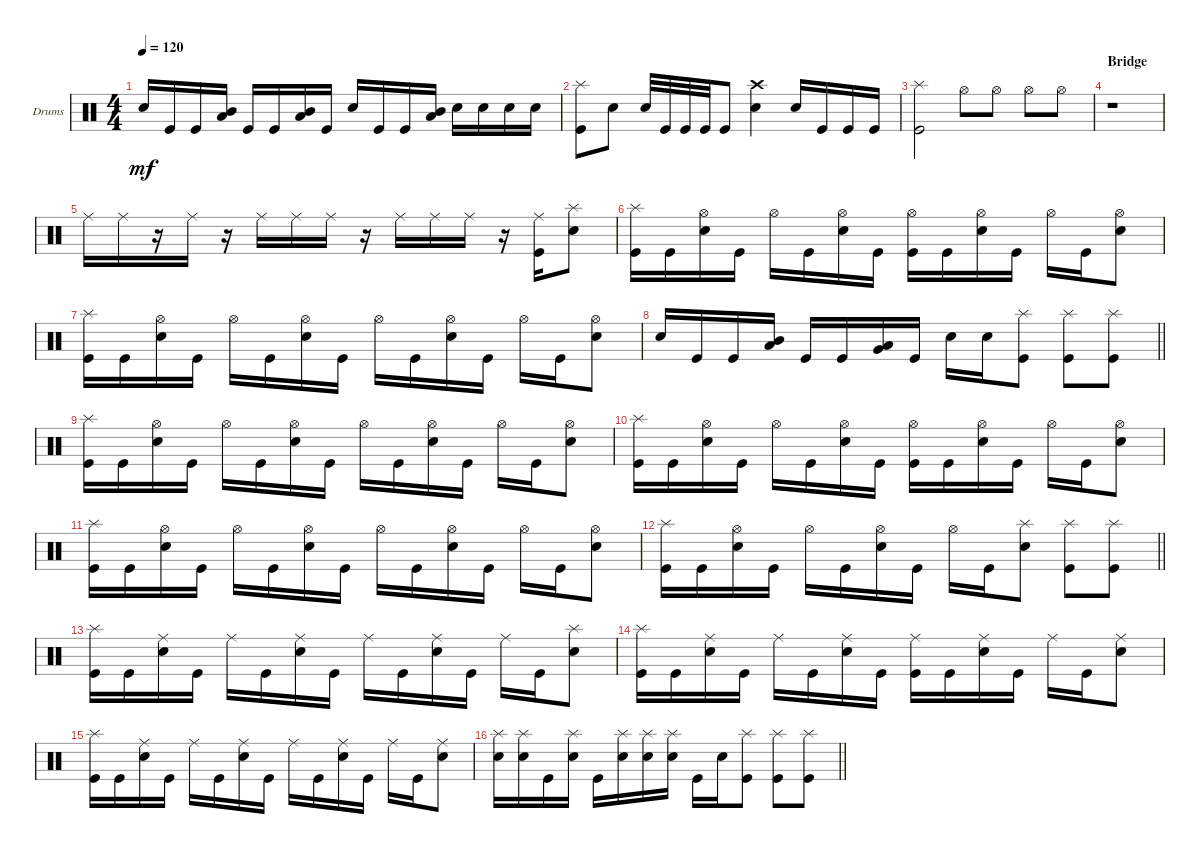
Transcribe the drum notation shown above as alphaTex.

\defaultSystemsLayout 4
\bracketExtendMode groupsimilarinstruments
\firstSystemTrackNameOrientation horizontal
\otherSystemsTrackNameOrientation horizontal
\track ("Drumkit" "Drums") {instrument percussion}
\staff {score}
\articulation defaults
\ts (4 4)
\tempo 120
\clef neutral
\ks c "Snare (hit) 2".16{dy mf} "Kick (hit)".16 "Kick (hit)".16
("Mid Tom (hit)" "Low Tom (hit)").16 "Kick (hit)".16 "Kick (hit)".16 ("Mid Tom (hit)" "Low Tom (hit)").16 "Kick (hit)".16 "Snare (hit) 2".16 "Kick (hit)".16 "Kick (hit)".16 ("Mid Tom (hit)" "Low Tom (hit)").16 "Snare (hit) 2".16 "Snare (hit) 2".16 "Snare (hit) 2".16 "Snare (hit) 2".16 |
("Kick (hit)" "Splash (hit)").8 "Snare (hit) 2".8 "Snare (hit) 2".32 "Kick (hit)".32 "Kick (hit)".32 "Kick (hit)".32 "Kick (hit)".8 ("Snare (hit) 2" "Crash high (hit)").4 "Snare (hit) 2".16 "Kick (hit)".16 "Kick (hit)".16 "Kick (hit)".16 |
("Kick (hit)" "Splash (hit)").2 "Hi-Hat (open)".8 "Hi-Hat (open)".8 "Hi-Hat (open)".8 "Hi-Hat (open)".8 |
\section ("" "Bridge")
r.1 |
"Ride (middle)".16 "Ride (middle)".16 r.16 "Ride (middle)".16 r.16 "Ride (middle)".16 "Ride (middle)".16 "Ride (middle)".16 r.16 "Ride (middle)".16 "Ride (middle)".16 "Ride (middle)".16 r.16 ("Kick (hit)" "Ride (middle)").16 ("Snare (hit) 2" "Splash (hit)").8 |
("Kick (hit)" "Splash (hit)").16 "Kick (hit)".16 ("Snare (hit) 2" "Hi-Hat (open)").16 "Kick (hit)".16 "Hi-Hat (open)".16 "Kick (hit)".16 ("Snare (hit) 2" "Hi-Hat (open)").16 "Kick (hit)".16 ("Kick (hit)" "Hi-Hat (open)").16 "Kick (hit)".16 ("Snare (hit) 2" "Hi-Hat (open)").16 "Kick (hit)".16 "Hi-Hat (open)".16 "Kick (hit)".16 ("Snare (hit) 2" "Hi-Hat (open)").8 |
("Kick (hit)" "Splash (hit)").16 "Kick (hit)".16 ("Snare (hit) 2" "Hi-Hat (open)").16 "Kick (hit)".16 "Hi-Hat (open)".16 "Kick (hit)".16 ("Snare (hit) 2" "Hi-Hat (open)").16 "Kick (hit)".16 "Hi-Hat (open)".16 "Kick (hit)".16 ("Snare (hit) 2" "Hi-Hat (open)").16 "Kick (hit)".16 "Hi-Hat (open)".16 "Kick (hit)".16 ("Snare (hit) 2" "Hi-Hat (open)").8 |
\barLineRight lightlight "Snare (hit) 2".16 "Kick (hit)".16 "Kick (hit)".16
("Mid Tom (hit)" "Low Tom (hit)").16 "Kick (hit)".16 "Kick (hit)".16 ("Low Tom (hit)" "Very Low Tom (hit)").16 "Kick (hit)".16 "Snare (hit) 2".16 "Snare (hit) 2".16 ("Kick (hit)" "Splash (hit)").8 ("Kick (hit)" "Splash (hit)").8 ("Kick (hit)" "Splash (hit)").8 |
("Kick (hit)" "Splash (hit)").16 "Kick (hit)".16 ("Snare (hit) 2" "Hi-Hat (open)").16 "Kick (hit)".16 "Hi-Hat (open)".16 "Kick (hit)".16 ("Snare (hit) 2" "Hi-Hat (open)").16 "Kick (hit)".16 "Hi-Hat (open)".16 "Kick (hit)".16 ("Snare (hit) 2" "Hi-Hat (open)").16 "Kick (hit)".16 "Hi-Hat (open)".16 "Kick (hit)".16 ("Snare (hit) 2" "Hi-Hat (open)").8 |
("Kick (hit)" "Splash (hit)").16 "Kick (hit)".16 ("Snare (hit) 2" "Hi-Hat (open)").16 "Kick (hit)".16 "Hi-Hat (open)".16 "Kick (hit)".16 ("Snare (hit) 2" "Hi-Hat (open)").16 "Kick (hit)".16 ("Kick (hit)" "Hi-Hat (open)").16 "Kick (hit)".16 ("Snare (hit) 2" "Hi-Hat (open)").16 "Kick (hit)".16 "Hi-Hat (open)".16 "Kick (hit)".16 ("Snare (hit) 2" "Hi-Hat (open)").8 |
("Kick (hit)" "Splash (hit)").16 "Kick (hit)".16 ("Snare (hit) 2" "Hi-Hat (open)").16 "Kick (hit)".16 "Hi-Hat (open)".16 "Kick (hit)".16 ("Snare (hit) 2" "Hi-Hat (open)").16 "Kick (hit)".16 "Hi-Hat (open)".16 "Kick (hit)".16 ("Snare (hit) 2" "Hi-Hat (open)").16 "Kick (hit)".16 "Hi-Hat (open)".16 "Kick (hit)".16 ("Snare (hit) 2" "Hi-Hat (open)").8 |
\barLineRight lightlight
("Kick (hit)" "Splash (hit)").16 "Kick (hit)".16 ("Snare (hit) 2" "Hi-Hat (open)").16 "Kick (hit)".16 "Hi-Hat (open)".16 "Kick (hit)".16 ("Snare (hit) 2" "Hi-Hat (open)").16 "Kick (hit)".16 "Hi-Hat (open)".16 "Kick (hit)".16 ("Snare (hit) 2" "Splash (hit)").8 ("Kick (hit)" "Splash (hit)").8 ("Kick (hit)" "Splash (hit)").8 |
("Kick (hit)" "Splash (hit)").16 "Kick (hit)".16 ("Snare (hit) 2" "Ride (middle)").16 "Kick (hit)".16 "Ride (middle)".16 "Kick (hit)".16 ("Snare (hit) 2" "Ride (middle)").16 "Kick (hit)".16 "Ride (middle)".16 "Kick (hit)".16 ("Snare (hit) 2" "Ride (middle)").16 "Kick (hit)".16 "Ride (middle)".16 "Kick (hit)".16 ("Snare (hit) 2" "Splash (hit)").8 |
("Kick (hit)" "Splash (hit)").16 "Kick (hit)".16 ("Snare (hit) 2" "Ride (middle)").16 "Kick (hit)".16 "Ride (middle)".16 "Kick (hit)".16 ("Snare (hit) 2" "Ride (middle)").16 "Kick (hit)".16 ("Kick (hit)" "Ride (middle)").16 "Kick (hit)".16 ("Snare (hit) 2" "Ride (middle)").16 "Kick (hit)".16 "Ride (middle)".16 "Kick (hit)".16 ("Snare (hit) 2" "Ride (middle)").8 |
("Kick (hit)" "Splash (hit)").16 "Kick (hit)".16 ("Snare (hit) 2" "Ride (middle)").16 "Kick (hit)".16 "Ride (middle)".16 "Kick (hit)".16 ("Snare (hit) 2" "Ride (middle)").16 "Kick (hit)".16 "Ride (middle)".16 "Kick (hit)".16 ("Snare (hit) 2" "Ride (middle)").16 "Kick (hit)".16 "Ride (middle)".16 "Kick (hit)".16 ("Snare (hit) 2" "Ride (middle)").8 |
\barLineRight lightlight
("Snare (hit) 2" "Splash (hit)").16 ("Snare (hit) 2" "Splash (hit)").16 "Kick (hit)".16 ("Snare (hit) 2" "Splash (hit)").16 "Kick (hit)".16 ("Snare (hit) 2" "Splash (hit)").16 ("Snare (hit) 2" "Splash (hit)").16 ("Snare (hit) 2" "Splash (hit)").16 "Kick (hit)".16 "Snare (hit) 2".16 ("Splash (hit)" "Kick (hit)").8 ("Kick (hit)" "Splash (hit)").8 ("Kick (hit)" "Splash (hit)").8
